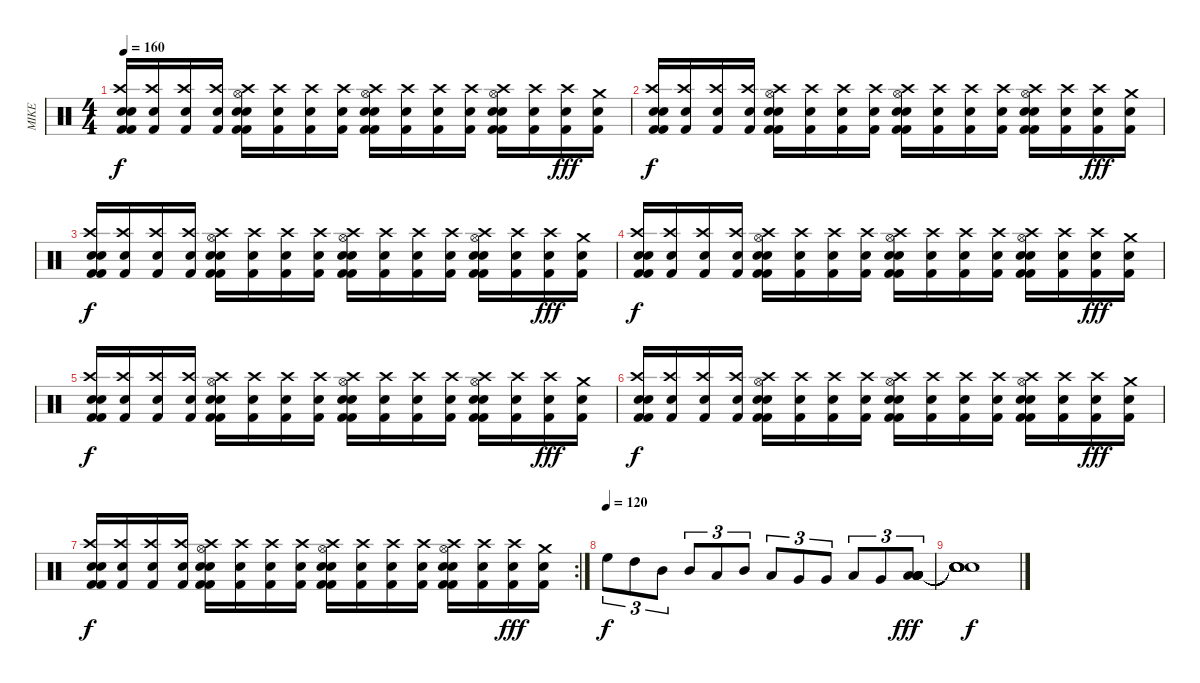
\track ("MIKE" "MIKE") {instrument percussion}
\staff {score}
\articulation defaults
\ts (4 4)
\tempo 160
\clef neutral
\ks c
("Snare (hit) 2" "Crash high (hit)" "Kick (hit) 2" "Electric Snare (hit)" "Kick (hit) 2").16{dy f} ("Snare (hit) 2" "Crash high (hit)" "Kick (hit) 2").16 ("Snare (hit) 2" "Crash high (hit)" "Kick (hit) 2").16 ("Snare (hit) 2" "Crash high (hit)" "Kick (hit) 2").16 ("Snare (hit) 2" "Hi-Hat (open)" "Crash high (hit)" "Kick (hit) 2" "Electric Snare (hit)" "Kick (hit) 2").16 ("Snare (hit) 2" "Crash high (hit)" "Kick (hit) 2").16 ("Snare (hit) 2" "Crash high (hit)" "Kick (hit) 2").16 ("Snare (hit) 2" "Crash high (hit)" "Kick (hit) 2").16 ("Snare (hit) 2" "Hi-Hat (open)" "Crash high (hit)" "Kick (hit) 2" "Electric Snare (hit)" "Kick (hit) 2").16 ("Snare (hit) 2" "Crash high (hit)" "Kick (hit) 2").16 ("Snare (hit) 2" "Crash high (hit)" "Kick (hit) 2").16 ("Snare (hit) 2" "Crash high (hit)" "Kick (hit) 2").16 ("Snare (hit) 2" "Hi-Hat (open)" "Crash high (hit)" "Kick (hit) 2" "Electric Snare (hit)" "Kick (hit) 2").16 ("Snare (hit) 2" "Crash high (hit)" "Kick (hit) 2").16 ("Snare (hit) 2" "Crash high (hit)" "Kick (hit) 2").16{dy fff} ("Snare (hit) 2" "Crash medium (hit)" "Kick (hit) 2").16 |
("Snare (hit) 2" "Crash high (hit)" "Kick (hit) 2" "Electric Snare (hit)" "Kick (hit) 2").16{dy f} ("Snare (hit) 2" "Crash high (hit)" "Kick (hit) 2").16 ("Snare (hit) 2" "Crash high (hit)" "Kick (hit) 2").16 ("Snare (hit) 2" "Crash high (hit)" "Kick (hit) 2").16 ("Snare (hit) 2" "Hi-Hat (open)" "Crash high (hit)" "Kick (hit) 2" "Electric Snare (hit)" "Kick (hit) 2").16 ("Snare (hit) 2" "Crash high (hit)" "Kick (hit) 2").16 ("Snare (hit) 2" "Crash high (hit)" "Kick (hit) 2").16 ("Snare (hit) 2" "Crash high (hit)" "Kick (hit) 2").16 ("Snare (hit) 2" "Hi-Hat (open)" "Crash high (hit)" "Kick (hit) 2" "Electric Snare (hit)" "Kick (hit) 2").16 ("Snare (hit) 2" "Crash high (hit)" "Kick (hit) 2").16 ("Snare (hit) 2" "Crash high (hit)" "Kick (hit) 2").16 ("Snare (hit) 2" "Crash high (hit)" "Kick (hit) 2").16 ("Snare (hit) 2" "Hi-Hat (open)" "Crash high (hit)" "Kick (hit) 2" "Electric Snare (hit)" "Kick (hit) 2").16 ("Snare (hit) 2" "Crash high (hit)" "Kick (hit) 2").16 ("Snare (hit) 2" "Crash high (hit)" "Kick (hit) 2").16{dy fff} ("Snare (hit) 2" "Crash medium (hit)" "Kick (hit) 2").16 |
("Snare (hit) 2" "Crash high (hit)" "Kick (hit) 2" "Electric Snare (hit)" "Kick (hit) 2").16{dy f} ("Snare (hit) 2" "Crash high (hit)" "Kick (hit) 2").16 ("Snare (hit) 2" "Crash high (hit)" "Kick (hit) 2").16 ("Snare (hit) 2" "Crash high (hit)" "Kick (hit) 2").16 ("Snare (hit) 2" "Hi-Hat (open)" "Crash high (hit)" "Kick (hit) 2" "Electric Snare (hit)" "Kick (hit) 2").16 ("Snare (hit) 2" "Crash high (hit)" "Kick (hit) 2").16 ("Snare (hit) 2" "Crash high (hit)" "Kick (hit) 2").16 ("Snare (hit) 2" "Crash high (hit)" "Kick (hit) 2").16 ("Snare (hit) 2" "Hi-Hat (open)" "Crash high (hit)" "Kick (hit) 2" "Electric Snare (hit)" "Kick (hit) 2").16 ("Snare (hit) 2" "Crash high (hit)" "Kick (hit) 2").16 ("Snare (hit) 2" "Crash high (hit)" "Kick (hit) 2").16 ("Snare (hit) 2" "Crash high (hit)" "Kick (hit) 2").16 ("Snare (hit) 2" "Hi-Hat (open)" "Crash high (hit)" "Kick (hit) 2" "Electric Snare (hit)" "Kick (hit) 2").16 ("Snare (hit) 2" "Crash high (hit)" "Kick (hit) 2").16 ("Snare (hit) 2" "Crash high (hit)" "Kick (hit) 2").16{dy fff} ("Snare (hit) 2" "Crash medium (hit)" "Kick (hit) 2").16 |
("Snare (hit) 2" "Crash high (hit)" "Kick (hit) 2" "Electric Snare (hit)" "Kick (hit) 2").16{dy f} ("Snare (hit) 2" "Crash high (hit)" "Kick (hit) 2").16 ("Snare (hit) 2" "Crash high (hit)" "Kick (hit) 2").16 ("Snare (hit) 2" "Crash high (hit)" "Kick (hit) 2").16 ("Snare (hit) 2" "Hi-Hat (open)" "Crash high (hit)" "Kick (hit) 2" "Electric Snare (hit)" "Kick (hit) 2").16 ("Snare (hit) 2" "Crash high (hit)" "Kick (hit) 2").16 ("Snare (hit) 2" "Crash high (hit)" "Kick (hit) 2").16 ("Snare (hit) 2" "Crash high (hit)" "Kick (hit) 2").16 ("Snare (hit) 2" "Hi-Hat (open)" "Crash high (hit)" "Kick (hit) 2" "Electric Snare (hit)" "Kick (hit) 2").16 ("Snare (hit) 2" "Crash high (hit)" "Kick (hit) 2").16 ("Snare (hit) 2" "Crash high (hit)" "Kick (hit) 2").16 ("Snare (hit) 2" "Crash high (hit)" "Kick (hit) 2").16 ("Snare (hit) 2" "Hi-Hat (open)" "Crash high (hit)" "Kick (hit) 2" "Electric Snare (hit)" "Kick (hit) 2").16 ("Snare (hit) 2" "Crash high (hit)" "Kick (hit) 2").16 ("Snare (hit) 2" "Crash high (hit)" "Kick (hit) 2").16{dy fff} ("Snare (hit) 2" "Crash medium (hit)" "Kick (hit) 2").16 |
("Snare (hit) 2" "Crash high (hit)" "Kick (hit) 2" "Electric Snare (hit)" "Kick (hit) 2").16{dy f} ("Snare (hit) 2" "Crash high (hit)" "Kick (hit) 2").16 ("Snare (hit) 2" "Crash high (hit)" "Kick (hit) 2").16 ("Snare (hit) 2" "Crash high (hit)" "Kick (hit) 2").16 ("Snare (hit) 2" "Hi-Hat (open)" "Crash high (hit)" "Kick (hit) 2" "Electric Snare (hit)" "Kick (hit) 2").16 ("Snare (hit) 2" "Crash high (hit)" "Kick (hit) 2").16 ("Snare (hit) 2" "Crash high (hit)" "Kick (hit) 2").16 ("Snare (hit) 2" "Crash high (hit)" "Kick (hit) 2").16 ("Snare (hit) 2" "Hi-Hat (open)" "Crash high (hit)" "Kick (hit) 2" "Electric Snare (hit)" "Kick (hit) 2").16 ("Snare (hit) 2" "Crash high (hit)" "Kick (hit) 2").16 ("Snare (hit) 2" "Crash high (hit)" "Kick (hit) 2").16 ("Snare (hit) 2" "Crash high (hit)" "Kick (hit) 2").16 ("Snare (hit) 2" "Hi-Hat (open)" "Crash high (hit)" "Kick (hit) 2" "Electric Snare (hit)" "Kick (hit) 2").16 ("Snare (hit) 2" "Crash high (hit)" "Kick (hit) 2").16 ("Snare (hit) 2" "Crash high (hit)" "Kick (hit) 2").16{dy fff} ("Snare (hit) 2" "Crash medium (hit)" "Kick (hit) 2").16 |
("Snare (hit) 2" "Crash high (hit)" "Kick (hit) 2" "Electric Snare (hit)" "Kick (hit) 2").16{dy f} ("Snare (hit) 2" "Crash high (hit)" "Kick (hit) 2").16 ("Snare (hit) 2" "Crash high (hit)" "Kick (hit) 2").16 ("Snare (hit) 2" "Crash high (hit)" "Kick (hit) 2").16 ("Snare (hit) 2" "Hi-Hat (open)" "Crash high (hit)" "Kick (hit) 2" "Electric Snare (hit)" "Kick (hit) 2").16 ("Snare (hit) 2" "Crash high (hit)" "Kick (hit) 2").16 ("Snare (hit) 2" "Crash high (hit)" "Kick (hit) 2").16 ("Snare (hit) 2" "Crash high (hit)" "Kick (hit) 2").16 ("Snare (hit) 2" "Hi-Hat (open)" "Crash high (hit)" "Kick (hit) 2" "Electric Snare (hit)" "Kick (hit) 2").16 ("Snare (hit) 2" "Crash high (hit)" "Kick (hit) 2").16 ("Snare (hit) 2" "Crash high (hit)" "Kick (hit) 2").16 ("Snare (hit) 2" "Crash high (hit)" "Kick (hit) 2").16 ("Snare (hit) 2" "Hi-Hat (open)" "Crash high (hit)" "Kick (hit) 2" "Electric Snare (hit)" "Kick (hit) 2").16 ("Snare (hit) 2" "Crash high (hit)" "Kick (hit) 2").16 ("Snare (hit) 2" "Crash high (hit)" "Kick (hit) 2").16{dy fff} ("Snare (hit) 2" "Crash medium (hit)" "Kick (hit) 2").16 |
\rc 2
("Snare (hit) 2" "Crash high (hit)" "Kick (hit) 2" "Electric Snare (hit)" "Kick (hit) 2").16{dy f} ("Snare (hit) 2" "Crash high (hit)" "Kick (hit) 2").16 ("Snare (hit) 2" "Crash high (hit)" "Kick (hit) 2").16 ("Snare (hit) 2" "Crash high (hit)" "Kick (hit) 2").16 ("Snare (hit) 2" "Hi-Hat (open)" "Crash high (hit)" "Kick (hit) 2" "Electric Snare (hit)" "Kick (hit) 2").16 ("Snare (hit) 2" "Crash high (hit)" "Kick (hit) 2").16 ("Snare (hit) 2" "Crash high (hit)" "Kick (hit) 2").16 ("Snare (hit) 2" "Crash high (hit)" "Kick (hit) 2").16 ("Snare (hit) 2" "Hi-Hat (open)" "Crash high (hit)" "Kick (hit) 2" "Electric Snare (hit)" "Kick (hit) 2").16 ("Snare (hit) 2" "Crash high (hit)" "Kick (hit) 2").16 ("Snare (hit) 2" "Crash high (hit)" "Kick (hit) 2").16 ("Snare (hit) 2" "Crash high (hit)" "Kick (hit) 2").16 ("Snare (hit) 2" "Hi-Hat (open)" "Crash high (hit)" "Kick (hit) 2" "Electric Snare (hit)" "Kick (hit) 2").16 ("Snare (hit) 2" "Crash high (hit)" "Kick (hit) 2").16 ("Snare (hit) 2" "Crash high (hit)" "Kick (hit) 2").16{dy fff} ("Snare (hit) 2" "Crash medium (hit)" "Kick (hit) 2").16 |
\tempo (120)
"High Floor Tom (hit)".8{tu (3 2) dy f} "High Tom (hit)".8{tu (3 2)} "Mid Tom (hit)".8{tu (3 2)} "Mid Tom (hit)".8{tu (3 2)} "Low Tom (hit)".8{tu (3 2)} "Mid Tom (hit)".8{tu (3 2)} "Low Tom (hit)".8{tu (3 2)} "Very Low Tom (hit)".8{tu (3 2)} "Very Low Tom (hit)".8{tu (3 2)} "Low Tom (hit)".8{tu (3 2)} "Very Low Tom (hit)".8{tu (3 2)} ("Low Floor Tom (hit)" "Low Floor Tom (hit)" "Low Floor Tom (hit)" "Low Floor Tom (hit)" "Low Floor Tom (hit)" "Low Floor Tom (hit)").8{tu (3 2) dy fff} |
("Snare (hit)"{t} "Snare (hit)"{t} "Snare (hit)"{t} "Snare (hit)"{t} "Snare (hit)"{t} "Snare (hit)"{t}).1{dy f}
